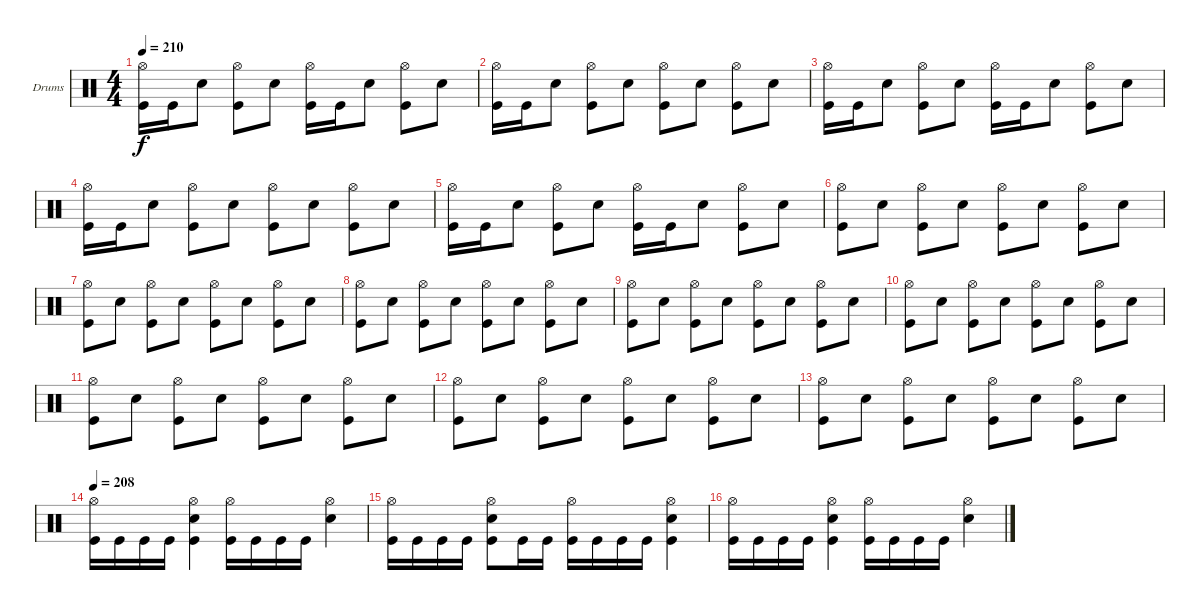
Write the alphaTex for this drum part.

\bracketExtendMode groupsimilarinstruments
\firstSystemTrackNameOrientation horizontal
\otherSystemsTrackNameOrientation horizontal
\track ("Drumkit" "Drums") {instrument percussion}
\staff {score}
\articulation defaults
\ts (4 4)
\tempo 210
\clef neutral
\ks c
("Hi-Hat (open)" "Kick (hit)").16{dy f} "Kick (hit)".16 "Snare (hit) 2".8 ("Hi-Hat (open)" "Kick (hit)").8 "Snare (hit) 2".8 ("Hi-Hat (open)" "Kick (hit)").16 "Kick (hit)".16 "Snare (hit) 2".8 ("Hi-Hat (open)" "Kick (hit)").8 "Snare (hit) 2".8 |
("Hi-Hat (open)" "Kick (hit)").16 "Kick (hit)".16 "Snare (hit) 2".8 ("Hi-Hat (open)" "Kick (hit)").8 "Snare (hit) 2".8 ("Hi-Hat (open)" "Kick (hit)").8 "Snare (hit) 2".8 ("Hi-Hat (open)" "Kick (hit)").8 "Snare (hit) 2".8 |
("Hi-Hat (open)" "Kick (hit)").16 "Kick (hit)".16 "Snare (hit) 2".8 ("Hi-Hat (open)" "Kick (hit)").8 "Snare (hit) 2".8 ("Hi-Hat (open)" "Kick (hit)").16 "Kick (hit)".16 "Snare (hit) 2".8 ("Hi-Hat (open)" "Kick (hit)").8 "Snare (hit) 2".8 |
("Hi-Hat (open)" "Kick (hit)").16 "Kick (hit)".16 "Snare (hit) 2".8 ("Hi-Hat (open)" "Kick (hit)").8 "Snare (hit) 2".8 ("Hi-Hat (open)" "Kick (hit)").8 "Snare (hit) 2".8 ("Hi-Hat (open)" "Kick (hit)").8 "Snare (hit) 2".8 |
("Hi-Hat (open)" "Kick (hit)").16 "Kick (hit)".16 "Snare (hit) 2".8 ("Hi-Hat (open)" "Kick (hit)").8 "Snare (hit) 2".8 ("Hi-Hat (open)" "Kick (hit)").16 "Kick (hit)".16 "Snare (hit) 2".8 ("Hi-Hat (open)" "Kick (hit)").8 "Snare (hit) 2".8 |
("Hi-Hat (open)" "Kick (hit)").8 "Snare (hit) 2".8 ("Hi-Hat (open)" "Kick (hit)").8 "Snare (hit) 2".8 ("Hi-Hat (open)" "Kick (hit)").8 "Snare (hit) 2".8 ("Hi-Hat (open)" "Kick (hit)").8 "Snare (hit) 2".8 |
("Hi-Hat (open)" "Kick (hit)").8 "Snare (hit) 2".8 ("Hi-Hat (open)" "Kick (hit)").8 "Snare (hit) 2".8 ("Hi-Hat (open)" "Kick (hit)").8 "Snare (hit) 2".8 ("Hi-Hat (open)" "Kick (hit)").8 "Snare (hit) 2".8 |
("Hi-Hat (open)" "Kick (hit)").8 "Snare (hit) 2".8 ("Hi-Hat (open)" "Kick (hit)").8 "Snare (hit) 2".8 ("Hi-Hat (open)" "Kick (hit)").8 "Snare (hit) 2".8 ("Hi-Hat (open)" "Kick (hit)").8 "Snare (hit) 2".8 |
("Hi-Hat (open)" "Kick (hit)").8 "Snare (hit) 2".8 ("Hi-Hat (open)" "Kick (hit)").8 "Snare (hit) 2".8 ("Hi-Hat (open)" "Kick (hit)").8 "Snare (hit) 2".8 ("Hi-Hat (open)" "Kick (hit)").8 "Snare (hit) 2".8 |
("Hi-Hat (open)" "Kick (hit)").8 "Snare (hit) 2".8 ("Hi-Hat (open)" "Kick (hit)").8 "Snare (hit) 2".8 ("Hi-Hat (open)" "Kick (hit)").8 "Snare (hit) 2".8 ("Hi-Hat (open)" "Kick (hit)").8 "Snare (hit) 2".8 |
("Hi-Hat (open)" "Kick (hit)").8 "Snare (hit) 2".8 ("Hi-Hat (open)" "Kick (hit)").8 "Snare (hit) 2".8 ("Hi-Hat (open)" "Kick (hit)").8 "Snare (hit) 2".8 ("Hi-Hat (open)" "Kick (hit)").8 "Snare (hit) 2".8 |
("Hi-Hat (open)" "Kick (hit)").8 "Snare (hit) 2".8 ("Hi-Hat (open)" "Kick (hit)").8 "Snare (hit) 2".8 ("Hi-Hat (open)" "Kick (hit)").8 "Snare (hit) 2".8 ("Hi-Hat (open)" "Kick (hit)").8 "Snare (hit) 2".8 |
("Hi-Hat (open)" "Kick (hit)").8 "Snare (hit) 2".8 ("Hi-Hat (open)" "Kick (hit)").8 "Snare (hit) 2".8 ("Hi-Hat (open)" "Kick (hit)").8 "Snare (hit) 2".8 ("Hi-Hat (open)" "Kick (hit)").8 "Snare (hit) 2".8 |
\tempo 208
("Hi-Hat (open)" "Kick (hit)").16 "Kick (hit)".16 "Kick (hit)".16 "Kick (hit)".16 ("Hi-Hat (open)" "Kick (hit)" "Snare (hit) 2").4 ("Hi-Hat (open)" "Kick (hit)").16 "Kick (hit)".16 "Kick (hit)".16 "Kick (hit)".16 ("Hi-Hat (open)" "Snare (hit) 2").4 |
("Hi-Hat (open)" "Kick (hit)").16 "Kick (hit)".16 "Kick (hit)".16 "Kick (hit)".16 ("Hi-Hat (open)" "Kick (hit)" "Snare (hit) 2").8 "Kick (hit)".16 "Kick (hit)".16 ("Hi-Hat (open)" "Kick (hit)").16 "Kick (hit)".16 "Kick (hit)".16 "Kick (hit)".16 ("Hi-Hat (open)" "Kick (hit)" "Snare (hit) 2").4 |
("Hi-Hat (open)" "Kick (hit)").16 "Kick (hit)".16 "Kick (hit)".16 "Kick (hit)".16 ("Hi-Hat (open)" "Kick (hit)" "Snare (hit) 2").4 ("Hi-Hat (open)" "Kick (hit)").16 "Kick (hit)".16 "Kick (hit)".16 "Kick (hit)".16 ("Hi-Hat (open)" "Snare (hit) 2").4
